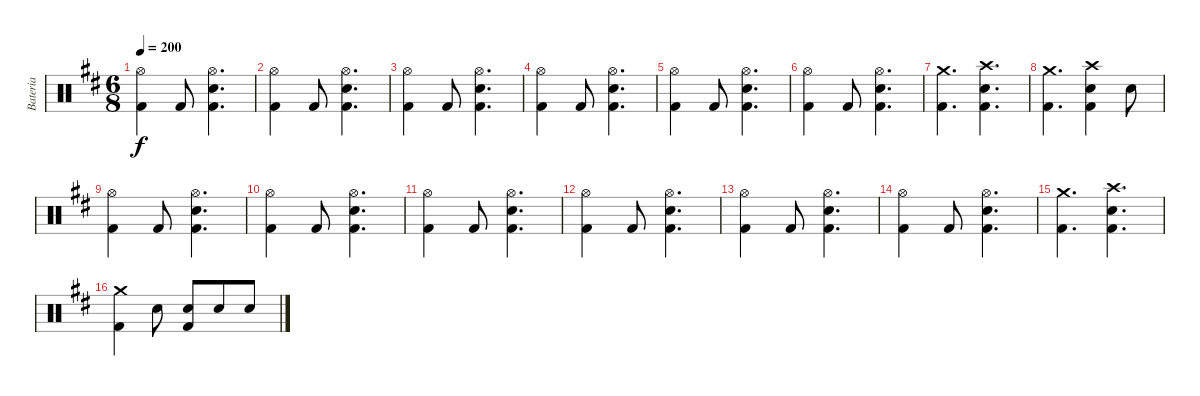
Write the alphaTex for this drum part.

\track ("Bateria" "Bateria") {instrument percussion}
\staff {score}
\articulation defaults
\ts (6 8)
\tempo 200
\clef neutral
\ks bminor
("Hi-Hat (open)" "Kick (hit) 2").4{dy f} "Kick (hit) 2".8 ("Hi-Hat (open)" "Electric Snare (hit)" "Kick (hit) 2").4{d} |
("Hi-Hat (open)" "Kick (hit) 2").4 "Kick (hit) 2".8 ("Hi-Hat (open)" "Electric Snare (hit)" "Kick (hit) 2").4{d} |
("Hi-Hat (open)" "Kick (hit) 2").4 "Kick (hit) 2".8 ("Hi-Hat (open)" "Electric Snare (hit)" "Kick (hit) 2").4{d} |
("Hi-Hat (open)" "Kick (hit) 2").4 "Kick (hit) 2".8 ("Hi-Hat (open)" "Electric Snare (hit)" "Kick (hit) 2").4{d} |
("Hi-Hat (open)" "Kick (hit) 2").4 "Kick (hit) 2".8 ("Hi-Hat (open)" "Electric Snare (hit)" "Kick (hit) 2").4{d} |
("Hi-Hat (open)" "Kick (hit) 2").4 "Kick (hit) 2".8 ("Hi-Hat (open)" "Electric Snare (hit)" "Kick (hit) 2").4{d} |
("Crash medium (hit)" "Kick (hit) 2").4{d} ("Crash high (hit)" "Electric Snare (hit)" "Kick (hit) 2").4{d} |
("Crash medium (hit)" "Kick (hit) 2").4{d} ("Crash high (hit)" "Electric Snare (hit)" "Kick (hit) 2").4 "Electric Snare (hit)".8 |
("Hi-Hat (open)" "Kick (hit) 2").4 "Kick (hit) 2".8 ("Hi-Hat (open)" "Electric Snare (hit)" "Kick (hit) 2").4{d} |
("Hi-Hat (open)" "Kick (hit) 2").4 "Kick (hit) 2".8 ("Hi-Hat (open)" "Electric Snare (hit)" "Kick (hit) 2").4{d} |
("Hi-Hat (open)" "Kick (hit) 2").4 "Kick (hit) 2".8 ("Hi-Hat (open)" "Electric Snare (hit)" "Kick (hit) 2").4{d} |
("Hi-Hat (open)" "Kick (hit) 2").4 "Kick (hit) 2".8 ("Hi-Hat (open)" "Electric Snare (hit)" "Kick (hit) 2").4{d} |
("Hi-Hat (open)" "Kick (hit) 2").4 "Kick (hit) 2".8 ("Hi-Hat (open)" "Electric Snare (hit)" "Kick (hit) 2").4{d} |
("Hi-Hat (open)" "Kick (hit) 2").4 "Kick (hit) 2".8 ("Hi-Hat (open)" "Electric Snare (hit)" "Kick (hit) 2").4{d} |
("Crash medium (hit)" "Kick (hit) 2").4{d} ("Crash high (hit)" "Electric Snare (hit)" "Kick (hit) 2").4{d} |
("Crash medium (hit)" "Kick (hit) 2").4 "Electric Snare (hit)".8 ("Electric Snare (hit)" "Kick (hit) 2").8 "Electric Snare (hit)".8 "Electric Snare (hit)".8
